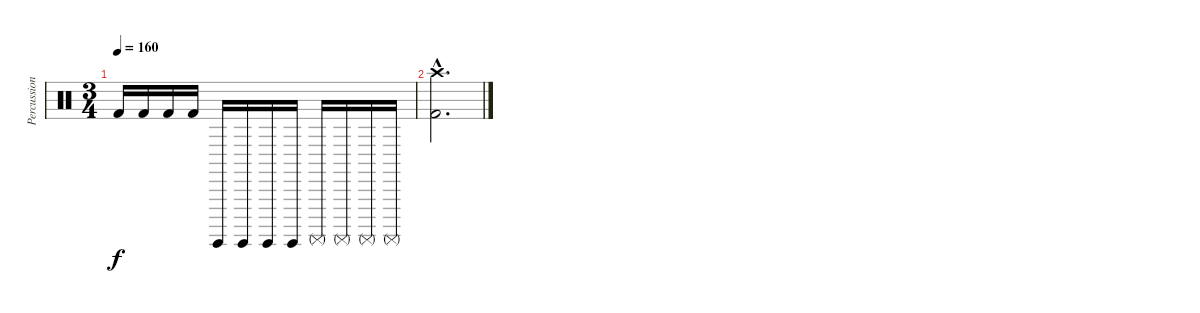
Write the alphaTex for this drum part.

\track ("Percussion" "Percussion") {instrument percussion}
\staff {score}
\articulation defaults
\ts (3 4)
\tempo 160
\clef neutral
\ks c "Kick (hit) 2".16{dy f} "Kick (hit) 2".16 "Kick (hit) 2".16 "Kick (hit) 2".16 "Surdo (hit)".16 "Surdo (hit)".16 "Surdo (hit)".16 "Surdo (hit)".16 "Surdo (mute)".16 "Surdo (mute)".16 "Surdo (mute)".16 "Surdo (mute)".16
|
("Crash high (hit)"{hac} "Kick (hit) 2"{hac}).2{d}
